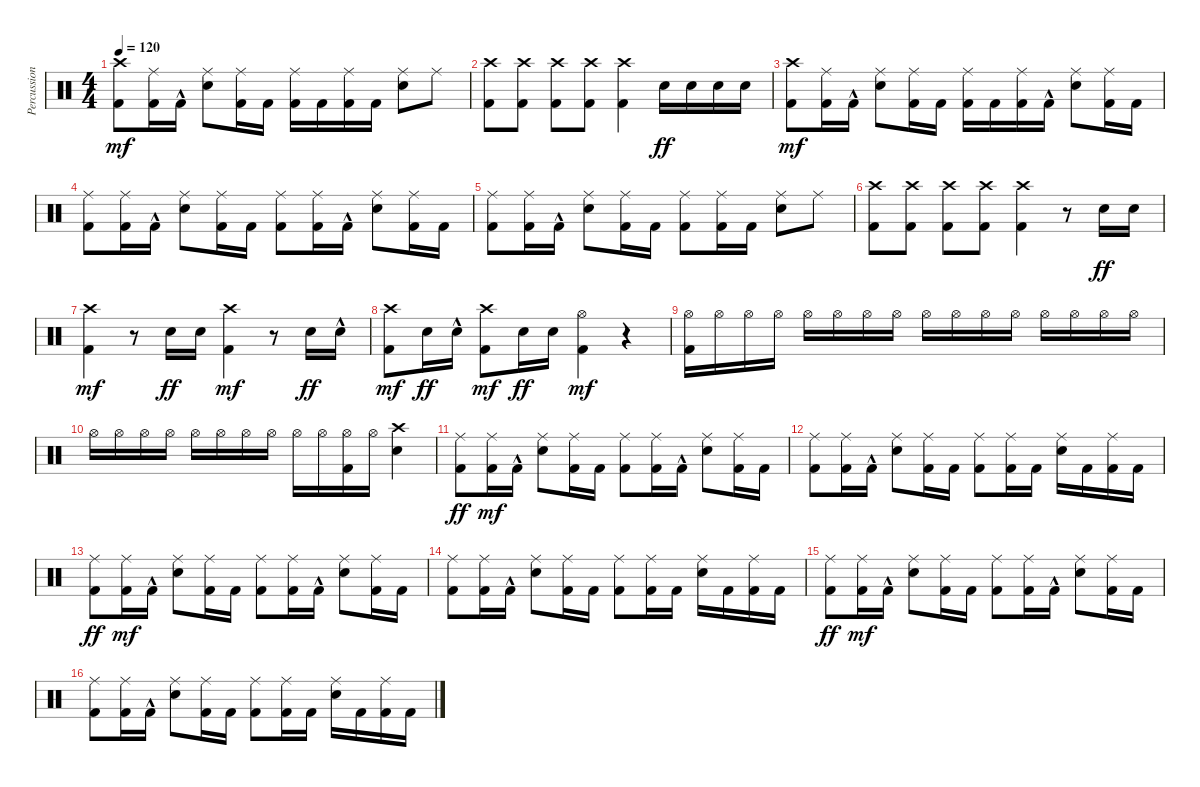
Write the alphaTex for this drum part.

\track ("Percussioni" "Percussion") {instrument percussion}
\staff {score}
\articulation defaults
\ts (4 4)
\tempo 120
\clef neutral
\ks c
("Kick (hit) 2" "Crash high (hit)").8{dy mf} ("Kick (hit) 2" "Ride (middle)").16 "Kick (hit) 2"{hac}.16 ("Snare (hit) 2" "Ride (middle)").8 ("Kick (hit) 2" "Ride (middle)").16 "Kick (hit) 2".16 ("Kick (hit) 2" "Ride (middle)").16 "Kick (hit) 2".16 ("Kick (hit) 2" "Ride (middle)").16 "Kick (hit) 2".16 ("Snare (hit) 2" "Ride (middle)").8 "Ride (middle)".8 |
("Kick (hit) 2" "Crash high (hit)").8 ("Kick (hit) 2" "Crash high (hit)").8 ("Kick (hit) 2" "Crash high (hit)").8 ("Kick (hit) 2" "Crash high (hit)").8 ("Kick (hit) 2" "Crash high (hit)").4 "Snare (hit) 2".16{dy ff} "Snare (hit) 2".16 "Snare (hit) 2".16 "Snare (hit) 2".16 |
("Kick (hit) 2" "Crash high (hit)").8{dy mf} ("Kick (hit) 2" "Ride (middle)").16 "Kick (hit) 2"{hac}.16 ("Snare (hit) 2" "Ride (middle)").8 ("Kick (hit) 2" "Ride (middle)").16 "Kick (hit) 2".16 ("Kick (hit) 2" "Ride (middle)").16 "Kick (hit) 2".16 ("Kick (hit) 2" "Ride (middle)").16 "Kick (hit) 2"{hac}.16 ("Snare (hit) 2" "Ride (middle)").8 ("Kick (hit) 2" "Ride (middle)").16 "Kick (hit) 2".16 |
("Kick (hit) 2" "Ride (middle)").8 ("Kick (hit) 2" "Ride (middle)").16 "Kick (hit) 2"{hac}.16 ("Snare (hit) 2" "Ride (middle)").8 ("Kick (hit) 2" "Ride (middle)").16 "Kick (hit) 2".16 ("Kick (hit) 2" "Ride (middle)").8 ("Kick (hit) 2" "Ride (middle)").16 "Kick (hit) 2"{hac}.16 ("Snare (hit) 2" "Ride (middle)").8 ("Kick (hit) 2" "Ride (middle)").16 "Kick (hit) 2".16 |
("Kick (hit) 2" "Ride (middle)").8 ("Kick (hit) 2" "Ride (middle)").16 "Kick (hit) 2"{hac}.16 ("Snare (hit) 2" "Ride (middle)").8 ("Kick (hit) 2" "Ride (middle)").16 "Kick (hit) 2".16 ("Kick (hit) 2" "Ride (middle)").8 ("Kick (hit) 2" "Ride (middle)").16 "Kick (hit) 2".16 ("Snare (hit) 2" "Ride (middle)").8 "Ride (middle)".8 |
("Kick (hit) 2" "Crash high (hit)").8 ("Kick (hit) 2" "Crash high (hit)").8 ("Kick (hit) 2" "Crash high (hit)").8 ("Kick (hit) 2" "Crash high (hit)").8 ("Kick (hit) 2" "Crash high (hit)").4 r.8 "Snare (hit) 2".16{dy ff} "Snare (hit) 2".16 |
("Kick (hit) 2" "Crash high (hit)").4{dy mf} r.8 "Snare (hit) 2".16{dy ff} "Snare (hit) 2".16 ("Kick (hit) 2" "Crash high (hit)").4{dy mf} r.8 "Snare (hit) 2".16{dy ff} "Snare (hit) 2"{hac}.16 |
("Kick (hit) 2" "Crash high (hit)").8{dy mf} "Snare (hit) 2".16{dy ff} "Snare (hit) 2"{hac}.16 ("Kick (hit) 2" "Crash high (hit)").8{dy mf} "Snare (hit) 2".16{dy ff} "Snare (hit) 2".16 ("Kick (hit) 2" "Hi-Hat (open)").4{dy mf} r.4 |
("Kick (hit) 2" "Hi-Hat (open)").16 "Hi-Hat (open)".16 "Hi-Hat (open)".16 "Hi-Hat (open)".16 "Hi-Hat (open)".16 "Hi-Hat (open)".16 "Hi-Hat (open)".16 "Hi-Hat (open)".16 "Hi-Hat (open)".16 "Hi-Hat (open)".16 "Hi-Hat (open)".16 "Hi-Hat (open)".16 "Hi-Hat (open)".16 "Hi-Hat (open)".16 "Hi-Hat (open)".16 "Hi-Hat (open)".16 |
"Hi-Hat (open)".16 "Hi-Hat (open)".16 "Hi-Hat (open)".16 "Hi-Hat (open)".16 "Hi-Hat (open)".16 "Hi-Hat (open)".16 "Hi-Hat (open)".16 "Hi-Hat (open)".16 "Hi-Hat (open)".16 "Hi-Hat (open)".16 ("Kick (hit) 2" "Hi-Hat (open)").16 "Hi-Hat (open)".16 ("Snare (hit) 2" "Crash high (hit)").4 |
("Kick (hit) 2" "Ride (middle)").8{dy ff} ("Kick (hit) 2" "Ride (middle)").16{dy mf} "Kick (hit) 2"{hac}.16 ("Snare (hit) 2" "Ride (middle)").8 ("Kick (hit) 2" "Ride (middle)").16 "Kick (hit) 2".16 ("Kick (hit) 2" "Ride (middle)").8 ("Kick (hit) 2" "Ride (middle)").16 "Kick (hit) 2"{hac}.16 ("Snare (hit) 2" "Ride (middle)").8 ("Kick (hit) 2" "Ride (middle)").16 "Kick (hit) 2".16 |
("Kick (hit) 2" "Ride (middle)").8 ("Kick (hit) 2" "Ride (middle)").16 "Kick (hit) 2"{hac}.16 ("Snare (hit) 2" "Ride (middle)").8 ("Kick (hit) 2" "Ride (middle)").16 "Kick (hit) 2".16 ("Kick (hit) 2" "Ride (middle)").8 ("Kick (hit) 2" "Ride (middle)").16 "Kick (hit) 2".16 ("Snare (hit) 2" "Ride (middle)").16 "Kick (hit) 2".16 ("Kick (hit) 2" "Ride (middle)").16 "Kick (hit) 2".16 |
("Kick (hit) 2" "Ride (middle)").8{dy ff} ("Kick (hit) 2" "Ride (middle)").16{dy mf} "Kick (hit) 2"{hac}.16 ("Snare (hit) 2" "Ride (middle)").8 ("Kick (hit) 2" "Ride (middle)").16 "Kick (hit) 2".16 ("Kick (hit) 2" "Ride (middle)").8 ("Kick (hit) 2" "Ride (middle)").16 "Kick (hit) 2"{hac}.16 ("Snare (hit) 2" "Ride (middle)").8 ("Kick (hit) 2" "Ride (middle)").16 "Kick (hit) 2".16 |
("Kick (hit) 2" "Ride (middle)").8 ("Kick (hit) 2" "Ride (middle)").16 "Kick (hit) 2"{hac}.16 ("Snare (hit) 2" "Ride (middle)").8 ("Kick (hit) 2" "Ride (middle)").16 "Kick (hit) 2".16 ("Kick (hit) 2" "Ride (middle)").8 ("Kick (hit) 2" "Ride (middle)").16 "Kick (hit) 2".16 ("Snare (hit) 2" "Ride (middle)").16 "Kick (hit) 2".16 ("Kick (hit) 2" "Ride (middle)").16 "Kick (hit) 2".16 |
("Kick (hit) 2" "Ride (middle)").8{dy ff} ("Kick (hit) 2" "Ride (middle)").16{dy mf} "Kick (hit) 2"{hac}.16 ("Snare (hit) 2" "Ride (middle)").8 ("Kick (hit) 2" "Ride (middle)").16 "Kick (hit) 2".16 ("Kick (hit) 2" "Ride (middle)").8 ("Kick (hit) 2" "Ride (middle)").16 "Kick (hit) 2"{hac}.16 ("Snare (hit) 2" "Ride (middle)").8 ("Kick (hit) 2" "Ride (middle)").16 "Kick (hit) 2".16 |
("Kick (hit) 2" "Ride (middle)").8 ("Kick (hit) 2" "Ride (middle)").16 "Kick (hit) 2"{hac}.16 ("Snare (hit) 2" "Ride (middle)").8 ("Kick (hit) 2" "Ride (middle)").16 "Kick (hit) 2".16 ("Kick (hit) 2" "Ride (middle)").8 ("Kick (hit) 2" "Ride (middle)").16 "Kick (hit) 2".16 ("Snare (hit) 2" "Ride (middle)").16 "Kick (hit) 2".16 ("Kick (hit) 2" "Ride (middle)").16 "Kick (hit) 2".16
